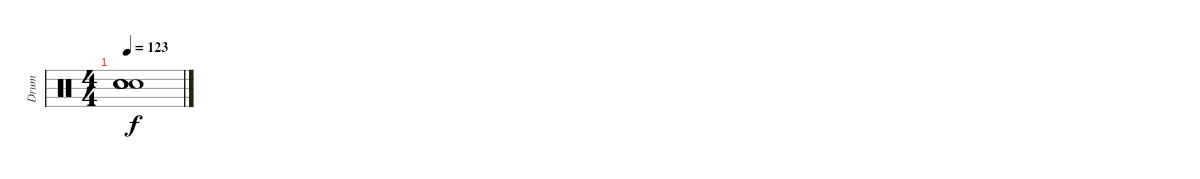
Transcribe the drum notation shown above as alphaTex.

\track ("Drum" "Drum") {instrument percussion}
\staff {score}
\articulation defaults
\ts (4 4)
\tempo 123
\clef neutral
\ks c
("Snare (hit)"{t} "Snare (hit)"{t} "Snare (hit)"{t} "Snare (hit)"{t} "Snare (hit)"{t}).1{dy f}
